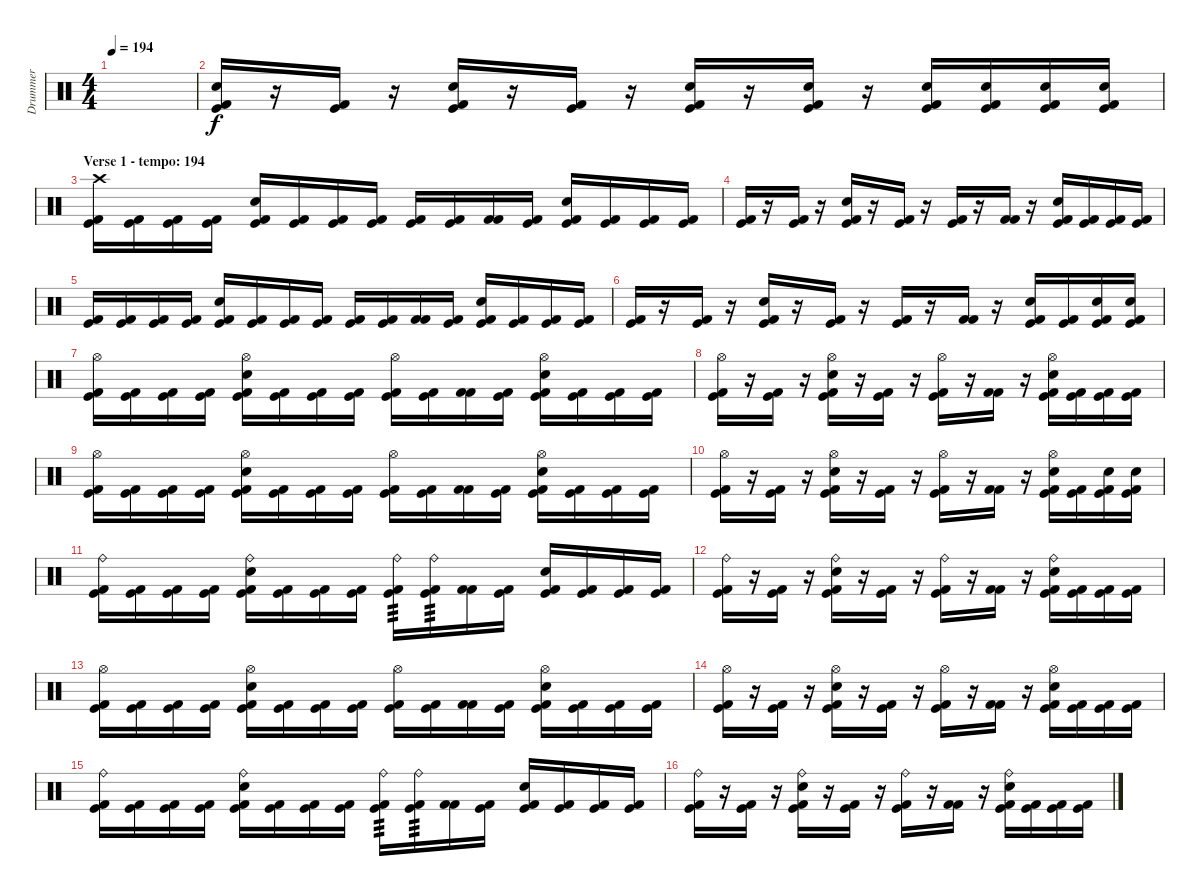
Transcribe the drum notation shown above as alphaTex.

\track ("Drummer" "Drummer") {instrument percussion}
\staff {score}
\articulation defaults
\ts (4 4)
\tempo 194
\clef neutral
\ks c
|
("Snare (hit) 2" "Kick (hit) 2" "Kick (hit)").16 r.16 ("Kick (hit) 2" "Kick (hit)").16 r.16 ("Snare (hit) 2" "Kick (hit) 2" "Kick (hit)").16 r.16 ("Kick (hit) 2" "Kick (hit)").16 r.16 ("Snare (hit) 2" "Kick (hit) 2" "Kick (hit)").16 r.16 ("Snare (hit) 2" "Kick (hit) 2" "Kick (hit)").16 r.16 ("Snare (hit) 2" "Kick (hit) 2" "Kick (hit)").16 ("Snare (hit) 2" "Kick (hit) 2" "Kick (hit)").16 ("Snare (hit) 2" "Kick (hit) 2" "Kick (hit)").16 ("Snare (hit) 2" "Kick (hit) 2" "Kick (hit)").16 |
\section ("" "Verse 1 - tempo: 194")
("Crash high (hit)" "Kick (hit)" "Kick (hit) 2").16 ("Kick (hit)" "Kick (hit) 2").16 ("Kick (hit)" "Kick (hit) 2").16 ("Kick (hit)" "Kick (hit) 2").16 ("Snare (hit) 2" "Kick (hit)" "Kick (hit) 2").16 ("Kick (hit)" "Kick (hit) 2").16 ("Kick (hit)" "Kick (hit) 2").16 ("Kick (hit)" "Kick (hit) 2").16 ("Kick (hit)" "Kick (hit) 2").16 ("Kick (hit)" "Kick (hit) 2").16 ("Kick (hit) 2" "Kick (hit) 2").16 ("Kick (hit)" "Kick (hit) 2").16 ("Snare (hit) 2" "Kick (hit)" "Kick (hit) 2").16 ("Kick (hit)" "Kick (hit) 2").16 ("Kick (hit)" "Kick (hit) 2").16 ("Kick (hit)" "Kick (hit) 2").16 |
("Kick (hit)" "Kick (hit) 2").16 r.16 ("Kick (hit)" "Kick (hit) 2").16 r.16 ("Snare (hit) 2" "Kick (hit)" "Kick (hit) 2").16 r.16 ("Kick (hit)" "Kick (hit) 2").16 r.16 ("Kick (hit)" "Kick (hit) 2").16 r.16 ("Kick (hit) 2" "Kick (hit) 2").16 r.16 ("Snare (hit) 2" "Kick (hit)" "Kick (hit) 2").16 ("Kick (hit)" "Kick (hit) 2").16 ("Kick (hit)" "Kick (hit) 2").16 ("Kick (hit)" "Kick (hit) 2").16 |
("Kick (hit)" "Kick (hit) 2").16 ("Kick (hit)" "Kick (hit) 2").16 ("Kick (hit)" "Kick (hit) 2").16 ("Kick (hit)" "Kick (hit) 2").16 ("Snare (hit) 2" "Kick (hit)" "Kick (hit) 2").16 ("Kick (hit)" "Kick (hit) 2").16 ("Kick (hit)" "Kick (hit) 2").16 ("Kick (hit)" "Kick (hit) 2").16 ("Kick (hit)" "Kick (hit) 2").16 ("Kick (hit)" "Kick (hit) 2").16 ("Kick (hit) 2" "Kick (hit) 2").16 ("Kick (hit)" "Kick (hit) 2").16 ("Snare (hit) 2" "Kick (hit)" "Kick (hit) 2").16 ("Kick (hit)" "Kick (hit) 2").16 ("Kick (hit)" "Kick (hit) 2").16 ("Kick (hit)" "Kick (hit) 2").16 |
("Kick (hit)" "Kick (hit) 2").16 r.16 ("Kick (hit)" "Kick (hit) 2").16 r.16 ("Snare (hit) 2" "Kick (hit)" "Kick (hit) 2").16 r.16 ("Kick (hit)" "Kick (hit) 2").16 r.16 ("Kick (hit)" "Kick (hit) 2").16 r.16 ("Kick (hit) 2" "Kick (hit) 2").16 r.16 ("Snare (hit) 2" "Kick (hit)" "Kick (hit) 2").16 ("Kick (hit)" "Kick (hit) 2").16 ("Snare (hit) 2" "Kick (hit)" "Kick (hit) 2").16 ("Snare (hit) 2" "Kick (hit)" "Kick (hit) 2").16 |
("Hi-Hat (open)" "Kick (hit)" "Kick (hit) 2").16 ("Kick (hit)" "Kick (hit) 2").16 ("Kick (hit)" "Kick (hit) 2").16 ("Kick (hit)" "Kick (hit) 2").16 ("Hi-Hat (open)" "Snare (hit) 2" "Kick (hit)" "Kick (hit) 2").16 ("Kick (hit)" "Kick (hit) 2").16 ("Kick (hit)" "Kick (hit) 2").16 ("Kick (hit)" "Kick (hit) 2").16 ("Hi-Hat (open)" "Kick (hit)" "Kick (hit) 2").16 ("Kick (hit)" "Kick (hit) 2").16 ("Kick (hit) 2" "Kick (hit) 2").16 ("Kick (hit)" "Kick (hit) 2").16 ("Hi-Hat (open)" "Snare (hit) 2" "Kick (hit)" "Kick (hit) 2").16 ("Kick (hit)" "Kick (hit) 2").16 ("Kick (hit)" "Kick (hit) 2").16 ("Kick (hit)" "Kick (hit) 2").16 |
("Hi-Hat (open)" "Kick (hit)" "Kick (hit) 2").16 r.16 ("Kick (hit)" "Kick (hit) 2").16 r.16 ("Hi-Hat (open)" "Snare (hit) 2" "Kick (hit)" "Kick (hit) 2").16 r.16 ("Kick (hit)" "Kick (hit) 2").16 r.16 ("Hi-Hat (open)" "Kick (hit)" "Kick (hit) 2").16 r.16 ("Kick (hit) 2" "Kick (hit) 2").16 r.16 ("Hi-Hat (open)" "Snare (hit) 2" "Kick (hit)" "Kick (hit) 2").16 ("Kick (hit)" "Kick (hit) 2").16 ("Kick (hit)" "Kick (hit) 2").16 ("Kick (hit)" "Kick (hit) 2").16 |
("Hi-Hat (open)" "Kick (hit)" "Kick (hit) 2").16 ("Kick (hit)" "Kick (hit) 2").16 ("Kick (hit)" "Kick (hit) 2").16 ("Kick (hit)" "Kick (hit) 2").16 ("Hi-Hat (open)" "Snare (hit) 2" "Kick (hit)" "Kick (hit) 2").16 ("Kick (hit)" "Kick (hit) 2").16 ("Kick (hit)" "Kick (hit) 2").16 ("Kick (hit)" "Kick (hit) 2").16 ("Hi-Hat (open)" "Kick (hit)" "Kick (hit) 2").16 ("Kick (hit)" "Kick (hit) 2").16 ("Kick (hit) 2" "Kick (hit) 2").16 ("Kick (hit)" "Kick (hit) 2").16 ("Hi-Hat (open)" "Snare (hit) 2" "Kick (hit)" "Kick (hit) 2").16 ("Kick (hit)" "Kick (hit) 2").16 ("Kick (hit)" "Kick (hit) 2").16 ("Kick (hit)" "Kick (hit) 2").16 |
("Hi-Hat (open)" "Kick (hit)" "Kick (hit) 2").16 r.16 ("Kick (hit)" "Kick (hit) 2").16 r.16 ("Hi-Hat (open)" "Snare (hit) 2" "Kick (hit)" "Kick (hit) 2").16 r.16 ("Kick (hit)" "Kick (hit) 2").16 r.16 ("Hi-Hat (open)" "Kick (hit)" "Kick (hit) 2").16 r.16 ("Kick (hit) 2" "Kick (hit) 2").16 r.16 ("Hi-Hat (open)" "Snare (hit) 2" "Kick (hit)" "Kick (hit) 2").16 ("Kick (hit)" "Kick (hit) 2").16 ("Snare (hit) 2" "Kick (hit)" "Kick (hit) 2").16 ("Snare (hit) 2" "Kick (hit)" "Kick (hit) 2").16 |
("Ride (bell)" "Kick (hit)" "Kick (hit) 2").16 ("Kick (hit)" "Kick (hit) 2").16 ("Kick (hit)" "Kick (hit) 2").16 ("Kick (hit)" "Kick (hit) 2").16 ("Ride (bell)" "Snare (hit) 2" "Kick (hit)" "Kick (hit) 2").16 ("Kick (hit)" "Kick (hit) 2").16 ("Kick (hit)" "Kick (hit) 2").16 ("Kick (hit)" "Kick (hit) 2").16 ("Ride (bell)" "Kick (hit)" "Kick (hit) 2").16{tp 3} ("Ride (bell)" "Kick (hit)" "Kick (hit) 2").16{tp 3} ("Kick (hit) 2" "Kick (hit) 2").16 ("Kick (hit)" "Kick (hit) 2").16 ("Snare (hit) 2" "Kick (hit)" "Kick (hit) 2").16 ("Kick (hit)" "Kick (hit) 2").16 ("Kick (hit)" "Kick (hit) 2").16 ("Kick (hit)" "Kick (hit) 2").16 |
("Ride (bell)" "Kick (hit)" "Kick (hit) 2").16 r.16 ("Kick (hit)" "Kick (hit) 2").16 r.16 ("Ride (bell)" "Snare (hit) 2" "Kick (hit)" "Kick (hit) 2").16 r.16 ("Kick (hit)" "Kick (hit) 2").16 r.16 ("Ride (bell)" "Kick (hit)" "Kick (hit) 2").16 r.16 ("Kick (hit) 2" "Kick (hit) 2").16 r.16 ("Ride (bell)" "Snare (hit) 2" "Kick (hit)" "Kick (hit) 2").16 ("Kick (hit)" "Kick (hit) 2").16 ("Kick (hit)" "Kick (hit) 2").16 ("Kick (hit)" "Kick (hit) 2").16 |
("Hi-Hat (open)" "Kick (hit)" "Kick (hit) 2").16 ("Kick (hit)" "Kick (hit) 2").16 ("Kick (hit)" "Kick (hit) 2").16 ("Kick (hit)" "Kick (hit) 2").16 ("Hi-Hat (open)" "Snare (hit) 2" "Kick (hit)" "Kick (hit) 2").16 ("Kick (hit)" "Kick (hit) 2").16 ("Kick (hit)" "Kick (hit) 2").16 ("Kick (hit)" "Kick (hit) 2").16 ("Hi-Hat (open)" "Kick (hit)" "Kick (hit) 2").16 ("Kick (hit)" "Kick (hit) 2").16 ("Kick (hit) 2" "Kick (hit) 2").16 ("Kick (hit)" "Kick (hit) 2").16 ("Hi-Hat (open)" "Snare (hit) 2" "Kick (hit)" "Kick (hit) 2").16 ("Kick (hit)" "Kick (hit) 2").16 ("Kick (hit)" "Kick (hit) 2").16 ("Kick (hit)" "Kick (hit) 2").16 |
("Hi-Hat (open)" "Kick (hit)" "Kick (hit) 2").16 r.16 ("Kick (hit)" "Kick (hit) 2").16 r.16 ("Hi-Hat (open)" "Snare (hit) 2" "Kick (hit)" "Kick (hit) 2").16 r.16 ("Kick (hit)" "Kick (hit) 2").16 r.16 ("Hi-Hat (open)" "Kick (hit)" "Kick (hit) 2").16 r.16 ("Kick (hit) 2" "Kick (hit) 2").16 r.16 ("Hi-Hat (open)" "Snare (hit) 2" "Kick (hit)" "Kick (hit) 2").16 ("Kick (hit)" "Kick (hit) 2").16 ("Kick (hit)" "Kick (hit) 2").16 ("Kick (hit)" "Kick (hit) 2").16 |
("Ride (bell)" "Kick (hit)" "Kick (hit) 2").16 ("Kick (hit)" "Kick (hit) 2").16 ("Kick (hit)" "Kick (hit) 2").16 ("Kick (hit)" "Kick (hit) 2").16 ("Ride (bell)" "Snare (hit) 2" "Kick (hit)" "Kick (hit) 2").16 ("Kick (hit)" "Kick (hit) 2").16 ("Kick (hit)" "Kick (hit) 2").16 ("Kick (hit)" "Kick (hit) 2").16 ("Ride (bell)" "Kick (hit)" "Kick (hit) 2").16{tp 3} ("Ride (bell)" "Kick (hit)" "Kick (hit) 2").16{tp 3} ("Kick (hit) 2" "Kick (hit) 2").16 ("Kick (hit)" "Kick (hit) 2").16 ("Snare (hit) 2" "Kick (hit)" "Kick (hit) 2").16 ("Kick (hit)" "Kick (hit) 2").16 ("Kick (hit)" "Kick (hit) 2").16 ("Kick (hit)" "Kick (hit) 2").16 |
("Ride (bell)" "Kick (hit)" "Kick (hit) 2").16 r.16 ("Kick (hit)" "Kick (hit) 2").16 r.16 ("Ride (bell)" "Snare (hit) 2" "Kick (hit)" "Kick (hit) 2").16 r.16 ("Kick (hit)" "Kick (hit) 2").16 r.16 ("Ride (bell)" "Kick (hit)" "Kick (hit) 2").16 r.16 ("Kick (hit) 2" "Kick (hit) 2").16 r.16 ("Ride (bell)" "Snare (hit) 2" "Kick (hit)" "Kick (hit) 2").16 ("Kick (hit)" "Kick (hit) 2").16 ("Kick (hit)" "Kick (hit) 2").16 ("Kick (hit)" "Kick (hit) 2").16
